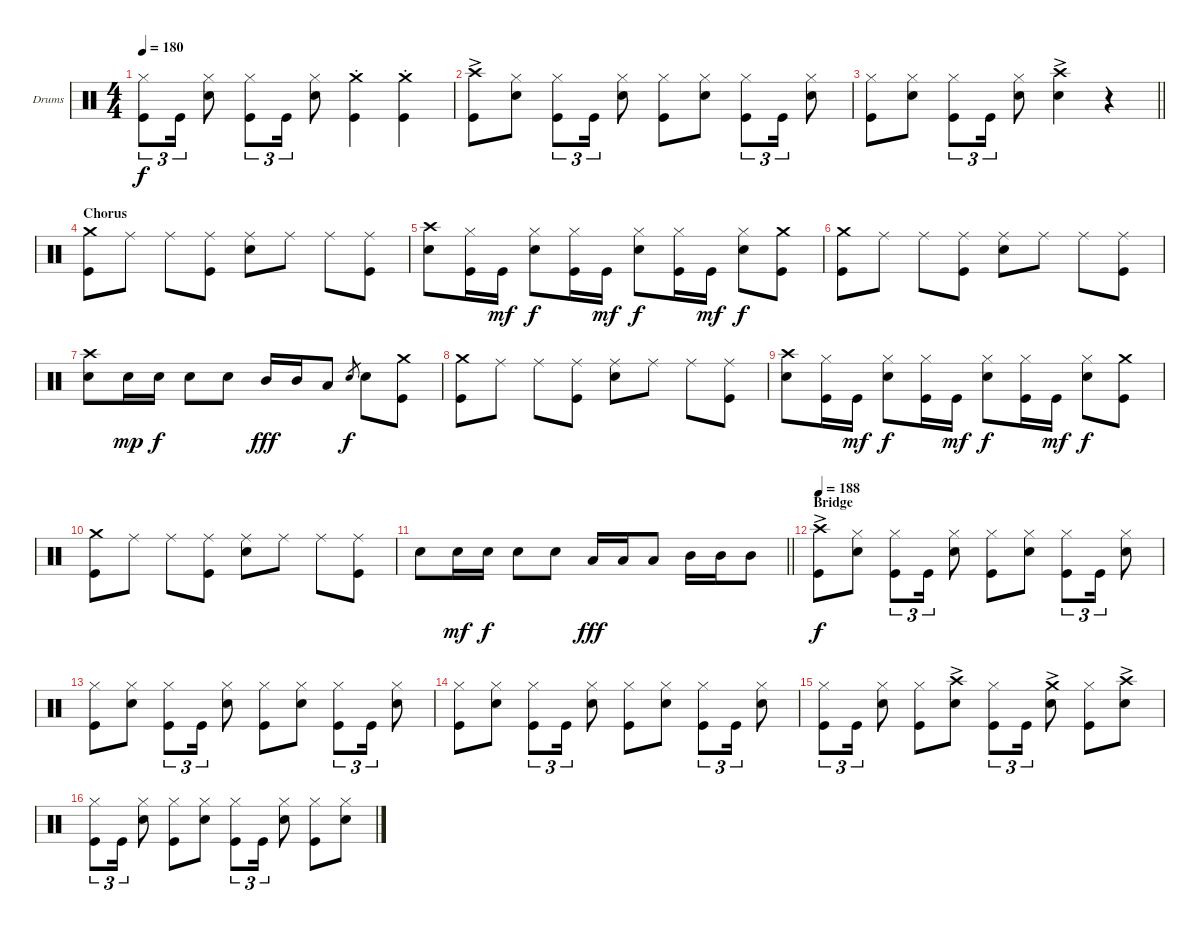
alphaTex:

\bracketExtendMode groupsimilarinstruments
\firstSystemTrackNameOrientation horizontal
\otherSystemsTrackNameOrientation horizontal
\track ("Drums" "Drums") {instrument percussion}
\staff {score}
\articulation defaults
\ts (4 4)
\tempo 180
\clef neutral
\ks c
("Kick (hit)" "Hi-Hat (closed)").8{tu (3 2) dy f} "Kick (hit)".16{tu (3 2)} ("Snare (hit) 2" "Hi-Hat (closed)").8 ("Kick (hit)" "Hi-Hat (closed)").8{tu (3 2)} "Kick (hit)".16{tu (3 2)} ("Snare (hit) 2" "Hi-Hat (closed)").8 ("Kick (hit)"{st} "Crash medium (hit)"{st}).4 ("Kick (hit)"{st} "Crash medium (hit)"{st}).4 |
("Kick (hit)" "Crash high (hit)"{ac}).8 ("Snare (hit) 2" "Hi-Hat (closed)").8 ("Kick (hit)" "Hi-Hat (closed)").8{tu (3 2)} "Kick (hit)".16{tu (3 2)} ("Snare (hit) 2" "Hi-Hat (closed)").8 ("Kick (hit)" "Hi-Hat (closed)").8 ("Snare (hit) 2" "Hi-Hat (closed)").8 ("Kick (hit)" "Hi-Hat (closed)").8{tu (3 2)} "Kick (hit)".16{tu (3 2)} ("Snare (hit) 2" "Hi-Hat (closed)").8 |
\barLineRight lightlight
("Kick (hit)" "Hi-Hat (closed)").8 ("Snare (hit) 2" "Hi-Hat (closed)").8 ("Kick (hit)" "Hi-Hat (closed)").8{tu (3 2)} "Kick (hit)".16{tu (3 2)} ("Snare (hit) 2" "Hi-Hat (closed)").8 ("Snare (hit) 2"{ac} "Crash high (hit)"{ac}).4 r.4 |
\section ("" "Chorus")
("Kick (hit)" "Crash medium (hit)").8 "Ride (middle)".8 "Ride (middle)".8 ("Kick (hit)" "Ride (middle)").8 ("Snare (hit) 2" "Ride (middle)").8 "Ride (middle)".8 "Ride (middle)".8 ("Ride (middle)" "Kick (hit)").8 |
("Snare (hit) 2" "Crash high (hit)").8 ("Hi-Hat (closed)" "Kick (hit)").16 "Kick (hit)".16{dy mf} ("Snare (hit) 2" "Hi-Hat (closed)").8{dy f} ("Hi-Hat (closed)" "Kick (hit)").16 "Kick (hit)".16{dy mf} ("Snare (hit) 2" "Hi-Hat (closed)").8{dy f} ("Hi-Hat (closed)" "Kick (hit)").16 "Kick (hit)".16{dy mf} ("Snare (hit) 2" "Hi-Hat (closed)").8{dy f} ("Kick (hit)" "Crash medium (hit)").8 |
("Kick (hit)" "Crash medium (hit)").8 "Ride (middle)".8 "Ride (middle)".8 ("Kick (hit)" "Ride (middle)").8 ("Snare (hit) 2" "Ride (middle)").8 "Ride (middle)".8 "Ride (middle)".8 ("Ride (middle)" "Kick (hit)").8 |
("Snare (hit) 2" "Crash high (hit)").8 "Snare (hit) 2".16{dy mp} "Snare (hit) 2".16{dy f} "Snare (hit) 2".8 "Snare (hit) 2".8 "Mid Tom (hit)".16{dy fff} "Mid Tom (hit)".16 "Low Tom (hit)".8 "Snare (hit) 2".8{gr dy f} "Snare (hit) 2".8 ("Kick (hit)" "Crash medium (hit)").8 |
("Kick (hit)" "Crash medium (hit)").8 "Ride (middle)".8 "Ride (middle)".8 ("Kick (hit)" "Ride (middle)").8 ("Snare (hit) 2" "Ride (middle)").8 "Ride (middle)".8 "Ride (middle)".8 ("Ride (middle)" "Kick (hit)").8 |
("Snare (hit) 2" "Crash high (hit)").8 ("Hi-Hat (closed)" "Kick (hit)").16 "Kick (hit)".16{dy mf} ("Snare (hit) 2" "Hi-Hat (closed)").8{dy f} ("Hi-Hat (closed)" "Kick (hit)").16 "Kick (hit)".16{dy mf} ("Snare (hit) 2" "Hi-Hat (closed)").8{dy f} ("Hi-Hat (closed)" "Kick (hit)").16 "Kick (hit)".16{dy mf} ("Snare (hit) 2" "Hi-Hat (closed)").8{dy f} ("Kick (hit)" "Crash medium (hit)").8 |
("Kick (hit)" "Crash medium (hit)").8 "Ride (middle)".8 "Ride (middle)".8 ("Kick (hit)" "Ride (middle)").8 ("Snare (hit) 2" "Ride (middle)").8 "Ride (middle)".8 "Ride (middle)".8 ("Ride (middle)" "Kick (hit)").8 |
\barLineRight lightlight "Snare (hit) 2".8 "Snare (hit) 2".16{dy mf} "Snare (hit) 2".16{dy f} "Snare (hit) 2".8 "Snare (hit) 2".8 "Low Tom (hit)".16{dy fff} "Low Tom (hit)".16 "Low Tom (hit)".8 "Mid Tom (hit)".16 "Mid Tom (hit)".16 "Mid Tom (hit)".8
|
\section ("" "Bridge")
\tempo 188
("Kick (hit)" "Crash high (hit)"{ac}).8{dy f} ("Snare (hit) 2" "Hi-Hat (closed)").8 ("Kick (hit)" "Hi-Hat (closed)").8{tu (3 2)} "Kick (hit)".16{tu (3 2)} ("Snare (hit) 2" "Hi-Hat (closed)").8 ("Kick (hit)" "Hi-Hat (closed)").8 ("Snare (hit) 2" "Hi-Hat (closed)").8 ("Kick (hit)" "Hi-Hat (closed)").8{tu (3 2)} "Kick (hit)".16{tu (3 2)} ("Snare (hit) 2" "Hi-Hat (closed)").8 |
("Kick (hit)" "Hi-Hat (closed)").8 ("Snare (hit) 2" "Hi-Hat (closed)").8 ("Kick (hit)" "Hi-Hat (closed)").8{tu (3 2)} "Kick (hit)".16{tu (3 2)} ("Snare (hit) 2" "Hi-Hat (closed)").8 ("Kick (hit)" "Hi-Hat (closed)").8 ("Snare (hit) 2" "Hi-Hat (closed)").8 ("Kick (hit)" "Hi-Hat (closed)").8{tu (3 2)} "Kick (hit)".16{tu (3 2)} ("Snare (hit) 2" "Hi-Hat (closed)").8 |
("Kick (hit)" "Hi-Hat (closed)").8 ("Snare (hit) 2" "Hi-Hat (closed)").8 ("Kick (hit)" "Hi-Hat (closed)").8{tu (3 2)} "Kick (hit)".16{tu (3 2)} ("Snare (hit) 2" "Hi-Hat (closed)").8 ("Kick (hit)" "Hi-Hat (closed)").8 ("Snare (hit) 2" "Hi-Hat (closed)").8 ("Kick (hit)" "Hi-Hat (closed)").8{tu (3 2)} "Kick (hit)".16{tu (3 2)} ("Snare (hit) 2" "Hi-Hat (closed)").8 |
("Kick (hit)" "Hi-Hat (closed)").8{tu (3 2)} "Kick (hit)".16{tu (3 2)} ("Snare (hit) 2" "Hi-Hat (closed)").8 ("Kick (hit)" "Hi-Hat (closed)").8 ("Snare (hit) 2"{ac} "Crash high (hit)"{ac}).8 ("Kick (hit)" "Hi-Hat (closed)").8{tu (3 2)} "Kick (hit)".16{tu (3 2)} ("Snare (hit) 2"{ac} "Crash medium (hit)"{ac}).8 ("Kick (hit)" "Hi-Hat (closed)").8 ("Snare (hit) 2"{ac} "Crash high (hit)"{ac}).8 |
("Kick (hit)" "Hi-Hat (closed)").8{tu (3 2)} "Kick (hit)".16{tu (3 2)} ("Snare (hit) 2" "Hi-Hat (closed)").8 ("Kick (hit)" "Hi-Hat (closed)").8 ("Snare (hit) 2" "Hi-Hat (closed)").8 ("Kick (hit)" "Hi-Hat (closed)").8{tu (3 2)} "Kick (hit)".16{tu (3 2)} ("Snare (hit) 2" "Hi-Hat (closed)").8 ("Kick (hit)" "Hi-Hat (closed)").8 ("Snare (hit) 2" "Hi-Hat (closed)").8
